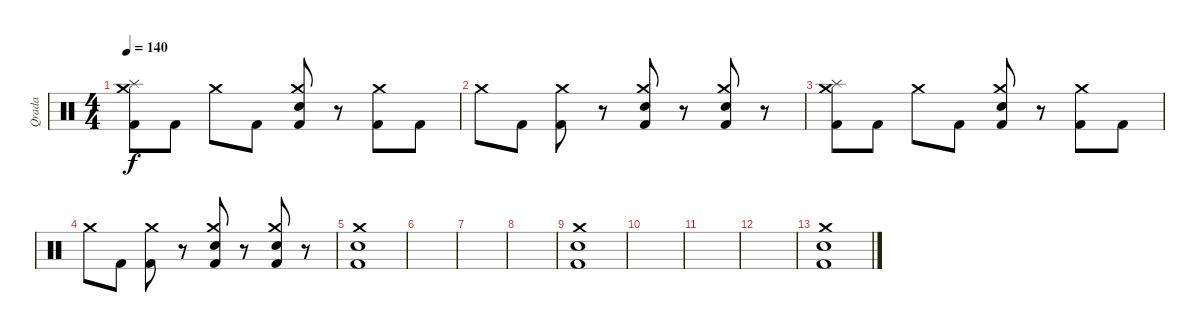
\track ("Qrada" "Qrada") {instrument percussion}
\staff {score}
\articulation defaults
\ts (4 4)
\tempo 140
\clef neutral
\ks c
("Kick (hit) 2" "Crash medium (hit)" "Splash (hit)").8{dy f} "Kick (hit) 2".8 "Crash medium (hit)".8 "Kick (hit) 2".8 ("Kick (hit) 2" "Snare (hit) 2" "Crash medium (hit)").8 r.8 ("Kick (hit) 2" "Crash medium (hit)").8 "Kick (hit) 2".8 |
"Crash medium (hit)".8 "Kick (hit) 2".8 ("Kick (hit) 2" "Crash medium (hit)").8 r.8 ("Kick (hit) 2" "Snare (hit) 2" "Crash medium (hit)").8 r.8 ("Kick (hit) 2" "Snare (hit) 2" "Crash medium (hit)").8 r.8 |
("Kick (hit) 2" "Crash medium (hit)" "Splash (hit)").8 "Kick (hit) 2".8 "Crash medium (hit)".8 "Kick (hit) 2".8 ("Kick (hit) 2" "Snare (hit) 2" "Crash medium (hit)").8 r.8 ("Kick (hit) 2" "Crash medium (hit)").8 "Kick (hit) 2".8 |
"Crash medium (hit)".8 "Kick (hit) 2".8 ("Kick (hit) 2" "Crash medium (hit)").8 r.8 ("Kick (hit) 2" "Snare (hit) 2" "Crash medium (hit)").8 r.8 ("Kick (hit) 2" "Snare (hit) 2" "Crash medium (hit)").8 r.8 |
("Kick (hit) 2" "Snare (hit) 2" "Crash medium (hit)").1 |
|
|
|
("Kick (hit) 2" "Snare (hit) 2" "Crash medium (hit)").1 |
|
|
|
("Kick (hit) 2" "Snare (hit) 2" "Crash medium (hit)").1
